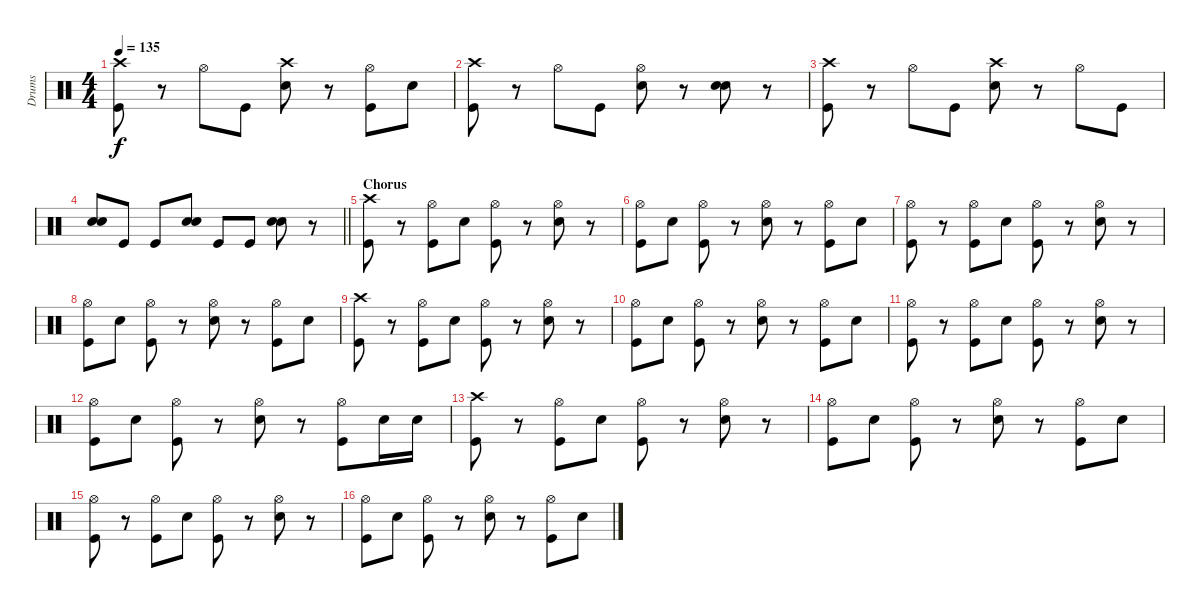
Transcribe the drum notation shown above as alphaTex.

\track ("Drums" "Drums") {instrument percussion}
\staff {score}
\articulation defaults
\ts (4 4)
\tempo 135
\clef neutral
\ks c
("Crash high (hit)" "Kick (hit)").8{dy f} r.8 "Hi-Hat (open)".8 "Kick (hit)".8 ("Crash high (hit)" "Electric Snare (hit)").8 r.8 ("Hi-Hat (open)" "Kick (hit)").8 "Electric Snare (hit)".8 |
("Crash high (hit)" "Kick (hit)").8 r.8 "Hi-Hat (open)".8 "Kick (hit)".8 ("Hi-Hat (open)" "Electric Snare (hit)").8 r.8 ("Electric Snare (hit)" "Electric Snare (hit)").8{bd 60} r.8 |
("Crash high (hit)" "Kick (hit)").8 r.8 "Hi-Hat (open)".8 "Kick (hit)".8 ("Crash high (hit)" "Electric Snare (hit)").8 r.8 "Hi-Hat (open)".8 "Kick (hit)".8 |
\barLineRight lightlight
("Electric Snare (hit)" "Electric Snare (hit)").8{bd 60} "Kick (hit)".8 "Kick (hit)".8 ("Electric Snare (hit)" "Electric Snare (hit)").8{bd 60} "Kick (hit)".8 "Kick (hit)".8 ("Electric Snare (hit)" "Electric Snare (hit)").8{bd 60} r.8 |
\section ("" "Chorus")
("Crash high (hit)" "Kick (hit)").8 r.8 ("Hi-Hat (open)" "Kick (hit)").8 "Electric Snare (hit)".8 ("Hi-Hat (open)" "Kick (hit)").8 r.8 ("Hi-Hat (open)" "Electric Snare (hit)").8 r.8 |
("Hi-Hat (open)" "Kick (hit)").8 "Electric Snare (hit)".8 ("Hi-Hat (open)" "Kick (hit)").8 r.8 ("Hi-Hat (open)" "Electric Snare (hit)").8 r.8 ("Hi-Hat (open)" "Kick (hit)").8 "Electric Snare (hit)".8 |
("Hi-Hat (open)" "Kick (hit)").8 r.8 ("Hi-Hat (open)" "Kick (hit)").8 "Electric Snare (hit)".8 ("Hi-Hat (open)" "Kick (hit)").8 r.8 ("Hi-Hat (open)" "Electric Snare (hit)").8 r.8 |
("Hi-Hat (open)" "Kick (hit)").8 "Electric Snare (hit)".8 ("Hi-Hat (open)" "Kick (hit)").8 r.8 ("Hi-Hat (open)" "Electric Snare (hit)").8 r.8 ("Hi-Hat (open)" "Kick (hit)").8 "Electric Snare (hit)".8 |
("Crash high (hit)" "Kick (hit)").8 r.8 ("Hi-Hat (open)" "Kick (hit)").8 "Electric Snare (hit)".8 ("Hi-Hat (open)" "Kick (hit)").8 r.8 ("Hi-Hat (open)" "Electric Snare (hit)").8 r.8 |
("Hi-Hat (open)" "Kick (hit)").8 "Electric Snare (hit)".8 ("Hi-Hat (open)" "Kick (hit)").8 r.8 ("Hi-Hat (open)" "Electric Snare (hit)").8 r.8 ("Hi-Hat (open)" "Kick (hit)").8 "Electric Snare (hit)".8 |
("Hi-Hat (open)" "Kick (hit)").8 r.8 ("Hi-Hat (open)" "Kick (hit)").8 "Electric Snare (hit)".8 ("Hi-Hat (open)" "Kick (hit)").8 r.8 ("Hi-Hat (open)" "Electric Snare (hit)").8 r.8 |
("Hi-Hat (open)" "Kick (hit)").8 "Electric Snare (hit)".8 ("Hi-Hat (open)" "Kick (hit)").8 r.8 ("Hi-Hat (open)" "Electric Snare (hit)").8 r.8 ("Hi-Hat (open)" "Kick (hit)").8 "Electric Snare (hit)".16 "Electric Snare (hit)".16 |
("Crash high (hit)" "Kick (hit)").8 r.8 ("Hi-Hat (open)" "Kick (hit)").8 "Electric Snare (hit)".8 ("Hi-Hat (open)" "Kick (hit)").8 r.8 ("Hi-Hat (open)" "Electric Snare (hit)").8 r.8 |
("Hi-Hat (open)" "Kick (hit)").8 "Electric Snare (hit)".8 ("Hi-Hat (open)" "Kick (hit)").8 r.8 ("Hi-Hat (open)" "Electric Snare (hit)").8 r.8 ("Hi-Hat (open)" "Kick (hit)").8 "Electric Snare (hit)".8 |
("Hi-Hat (open)" "Kick (hit)").8 r.8 ("Hi-Hat (open)" "Kick (hit)").8 "Electric Snare (hit)".8 ("Hi-Hat (open)" "Kick (hit)").8 r.8 ("Hi-Hat (open)" "Electric Snare (hit)").8 r.8 |
("Hi-Hat (open)" "Kick (hit)").8 "Electric Snare (hit)".8 ("Hi-Hat (open)" "Kick (hit)").8 r.8 ("Hi-Hat (open)" "Electric Snare (hit)").8 r.8 ("Hi-Hat (open)" "Kick (hit)").8 "Electric Snare (hit)".8
